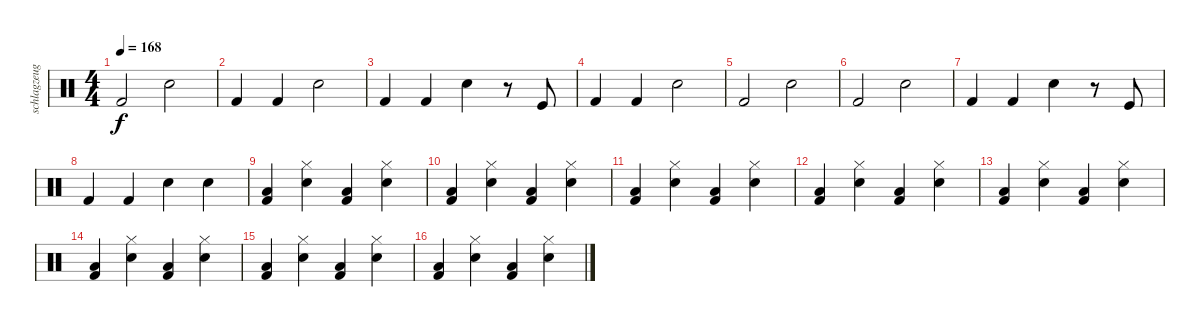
\track ("schlagzeug" "schlagzeug") {instrument percussion}
\staff {score}
\articulation defaults
\ts (4 4)
\tempo 168
\clef neutral
\ks c "Kick (hit) 2".2{dy f} "Electric Snare (hit)".2
|
"Kick (hit) 2".4 "Kick (hit) 2".4 "Electric Snare (hit)".2 |
"Kick (hit) 2".4 "Kick (hit) 2".4 "Electric Snare (hit)".4 r.8 "Kick (hit)".8 |
"Kick (hit) 2".4 "Kick (hit) 2".4 "Electric Snare (hit)".2 |
"Kick (hit) 2".2 "Electric Snare (hit)".2 |
"Kick (hit) 2".2 "Electric Snare (hit)".2 |
"Kick (hit) 2".4 "Kick (hit) 2".4 "Electric Snare (hit)".4 r.8 "Kick (hit)".8 |
"Kick (hit) 2".4 "Kick (hit) 2".4 "Electric Snare (hit)".4 "Electric Snare (hit)".4 |
("Low Floor Tom (hit)" "Kick (hit) 2").4 ("Electric Snare (hit)" "Hi-Hat (closed)").4 ("Low Floor Tom (hit)" "Kick (hit) 2").4 ("Electric Snare (hit)" "Hi-Hat (closed)").4 |
("Low Floor Tom (hit)" "Kick (hit) 2").4 ("Electric Snare (hit)" "Hi-Hat (closed)").4 ("Low Floor Tom (hit)" "Kick (hit) 2").4 ("Electric Snare (hit)" "Hi-Hat (closed)").4 |
("Low Floor Tom (hit)" "Kick (hit) 2").4 ("Electric Snare (hit)" "Hi-Hat (closed)").4 ("Low Floor Tom (hit)" "Kick (hit) 2").4 ("Electric Snare (hit)" "Hi-Hat (closed)").4 |
("Low Floor Tom (hit)" "Kick (hit) 2").4 ("Electric Snare (hit)" "Hi-Hat (closed)").4 ("Low Floor Tom (hit)" "Kick (hit) 2").4 ("Electric Snare (hit)" "Hi-Hat (closed)").4 |
("Low Floor Tom (hit)" "Kick (hit) 2").4 ("Electric Snare (hit)" "Hi-Hat (closed)").4 ("Low Floor Tom (hit)" "Kick (hit) 2").4 ("Electric Snare (hit)" "Hi-Hat (closed)").4 |
("Low Floor Tom (hit)" "Kick (hit) 2").4 ("Electric Snare (hit)" "Hi-Hat (closed)").4 ("Low Floor Tom (hit)" "Kick (hit) 2").4 ("Electric Snare (hit)" "Hi-Hat (closed)").4 |
("Low Floor Tom (hit)" "Kick (hit) 2").4 ("Electric Snare (hit)" "Hi-Hat (closed)").4 ("Low Floor Tom (hit)" "Kick (hit) 2").4 ("Electric Snare (hit)" "Hi-Hat (closed)").4 |
("Low Floor Tom (hit)" "Kick (hit) 2").4 ("Electric Snare (hit)" "Hi-Hat (closed)").4 ("Low Floor Tom (hit)" "Kick (hit) 2").4 ("Electric Snare (hit)" "Hi-Hat (closed)").4
